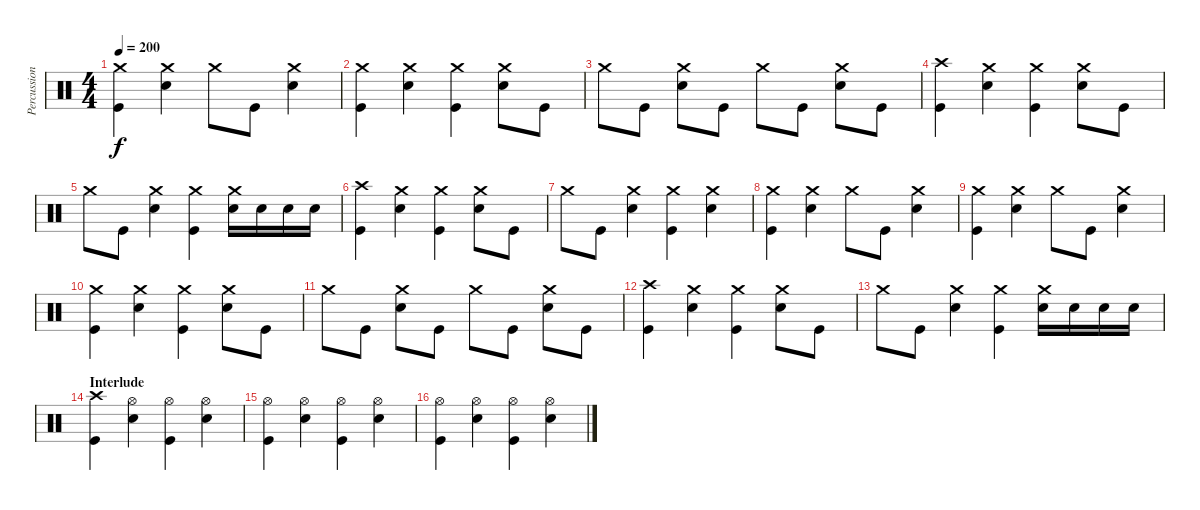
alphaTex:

\track ("Percussion" "Percussion") {instrument percussion}
\staff {score}
\articulation defaults
\ts (4 4)
\tempo 200
\clef neutral
\ks c
("Crash medium (hit)" "Kick (hit)").4{dy f} ("Crash medium (hit)" "Electric Snare (hit)").4 "Crash medium (hit)".8 "Kick (hit)".8 ("Crash medium (hit)" "Electric Snare (hit)").4 |
("Crash medium (hit)" "Kick (hit)").4 ("Crash medium (hit)" "Electric Snare (hit)").4 ("Crash medium (hit)" "Kick (hit)").4 ("Crash medium (hit)" "Electric Snare (hit)").8 "Kick (hit)".8 |
"Crash medium (hit)".8 "Kick (hit)".8 ("Crash medium (hit)" "Electric Snare (hit)").8 "Kick (hit)".8 "Crash medium (hit)".8 "Kick (hit)".8 ("Crash medium (hit)" "Electric Snare (hit)").8 "Kick (hit)".8 |
("Crash high (hit)" "Kick (hit)").4 ("Crash medium (hit)" "Electric Snare (hit)").4 ("Crash medium (hit)" "Kick (hit)").4 ("Crash medium (hit)" "Electric Snare (hit)").8 "Kick (hit)".8 |
"Crash medium (hit)".8 "Kick (hit)".8 ("Crash medium (hit)" "Electric Snare (hit)").4 ("Crash medium (hit)" "Kick (hit)").4 ("Crash medium (hit)" "Electric Snare (hit)").16 "Electric Snare (hit)".16 "Electric Snare (hit)".16 "Electric Snare (hit)".16 |
("Crash high (hit)" "Kick (hit)").4 ("Crash medium (hit)" "Electric Snare (hit)").4 ("Crash medium (hit)" "Kick (hit)").4 ("Crash medium (hit)" "Electric Snare (hit)").8 "Kick (hit)".8 |
"Crash medium (hit)".8 "Kick (hit)".8 ("Crash medium (hit)" "Electric Snare (hit)").4 ("Crash medium (hit)" "Kick (hit)").4 ("Crash medium (hit)" "Electric Snare (hit)").4 |
("Crash medium (hit)" "Kick (hit)").4 ("Crash medium (hit)" "Electric Snare (hit)").4 "Crash medium (hit)".8 "Kick (hit)".8 ("Crash medium (hit)" "Electric Snare (hit)").4 |
("Crash medium (hit)" "Kick (hit)").4 ("Crash medium (hit)" "Electric Snare (hit)").4 "Crash medium (hit)".8 "Kick (hit)".8 ("Crash medium (hit)" "Electric Snare (hit)").4 |
("Crash medium (hit)" "Kick (hit)").4 ("Crash medium (hit)" "Electric Snare (hit)").4 ("Crash medium (hit)" "Kick (hit)").4 ("Crash medium (hit)" "Electric Snare (hit)").8 "Kick (hit)".8 |
"Crash medium (hit)".8 "Kick (hit)".8 ("Crash medium (hit)" "Electric Snare (hit)").8 "Kick (hit)".8 "Crash medium (hit)".8 "Kick (hit)".8 ("Crash medium (hit)" "Electric Snare (hit)").8 "Kick (hit)".8 |
("Crash high (hit)" "Kick (hit)").4 ("Crash medium (hit)" "Electric Snare (hit)").4 ("Crash medium (hit)" "Kick (hit)").4 ("Crash medium (hit)" "Electric Snare (hit)").8 "Kick (hit)".8 |
"Crash medium (hit)".8 "Kick (hit)".8 ("Crash medium (hit)" "Electric Snare (hit)").4 ("Crash medium (hit)" "Kick (hit)").4 ("Crash medium (hit)" "Electric Snare (hit)").16 "Electric Snare (hit)".16 "Electric Snare (hit)".16 "Electric Snare (hit)".16 |
\section ("" "Interlude")
("Crash high (hit)" "Kick (hit)").4 ("Hi-Hat (open)" "Electric Snare (hit)").4 ("Hi-Hat (open)" "Kick (hit)").4 ("Hi-Hat (open)" "Electric Snare (hit)").4 |
("Hi-Hat (open)" "Kick (hit)").4 ("Hi-Hat (open)" "Electric Snare (hit)").4 ("Hi-Hat (open)" "Kick (hit)").4 ("Hi-Hat (open)" "Electric Snare (hit)").4 |
("Hi-Hat (open)" "Kick (hit)").4 ("Hi-Hat (open)" "Electric Snare (hit)").4 ("Hi-Hat (open)" "Kick (hit)").4 ("Hi-Hat (open)" "Electric Snare (hit)").4
